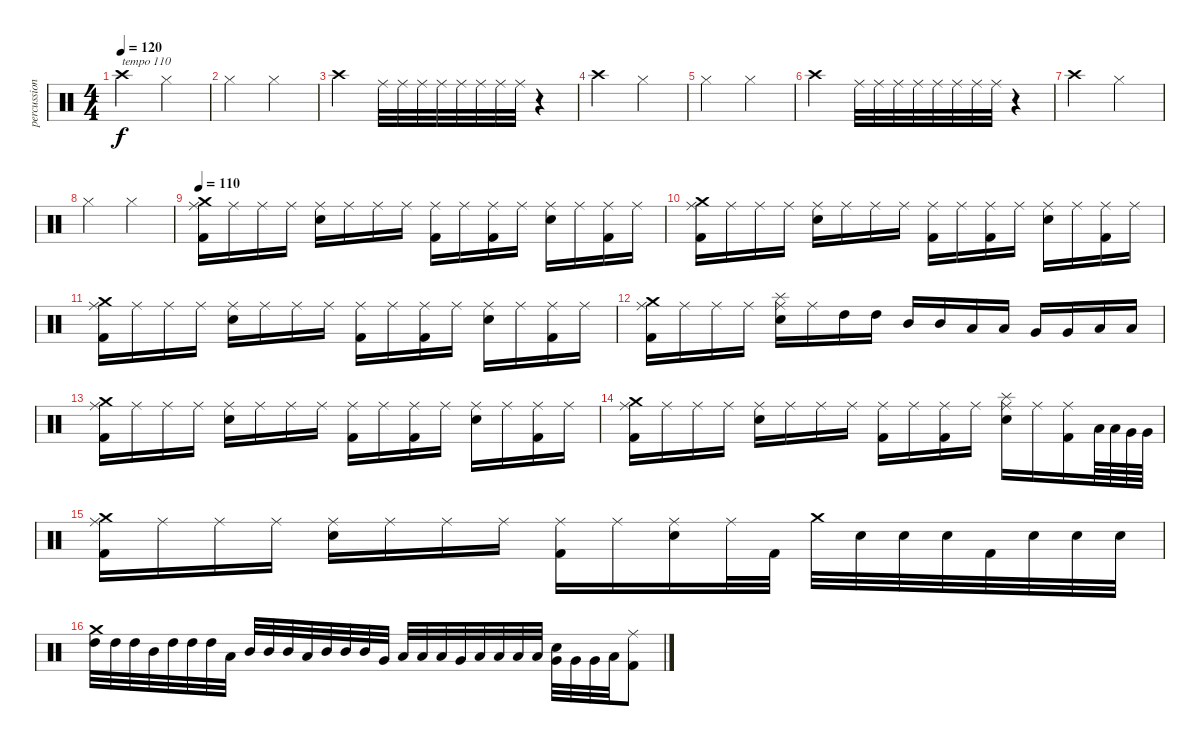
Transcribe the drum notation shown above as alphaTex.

\track ("percussion" "percussion") {instrument percussion}
\staff {score}
\articulation defaults
\ts (4 4)
\tempo 120
\tempo 110
\tempo 120
\clef neutral
\ks c "Crash high (hit)".2{txt "tempo 110" dy f} "Hi-Hat (closed)".2
|
"Hi-Hat (closed)".2 "Hi-Hat (closed)".2 |
"Crash high (hit)".2 "Ride (middle)".32 "Ride (middle)".32 "Ride (middle)".32 "Ride (middle)".32 "Ride (middle)".32 "Ride (middle)".32 "Ride (middle)".32 "Ride (middle)".32 r.4 |
"Crash high (hit)".2 "Hi-Hat (closed)".2 |
"Hi-Hat (closed)".2 "Hi-Hat (closed)".2 |
"Crash high (hit)".2 "Ride (middle)".32 "Ride (middle)".32 "Ride (middle)".32 "Ride (middle)".32 "Ride (middle)".32 "Ride (middle)".32 "Ride (middle)".32 "Ride (middle)".32 r.4 |
"Crash high (hit)".2 "Hi-Hat (closed)".2 |
"Hi-Hat (closed)".2 "Hi-Hat (closed)".2 |
\tempo 110
("Ride (middle)" "Kick (hit) 2" "Crash medium (hit)").16 "Ride (middle)".16 "Ride (middle)".16 "Ride (middle)".16 ("Ride (middle)" "Electric Snare (hit)").16 "Ride (middle)".16 "Ride (middle)".16 "Ride (middle)".16 ("Ride (middle)" "Kick (hit) 2").16 "Ride (middle)".16 ("Ride (middle)" "Kick (hit) 2").16 "Ride (middle)".16 ("Ride (middle)" "Electric Snare (hit)").16 "Ride (middle)".16 ("Ride (middle)" "Kick (hit) 2").16 "Ride (middle)".16 |
("Kick (hit) 2" "Ride (middle)" "Crash medium (hit)").16 "Ride (middle)".16 "Ride (middle)".16 "Ride (middle)".16 ("Ride (middle)" "Electric Snare (hit)").16 "Ride (middle)".16 "Ride (middle)".16 "Ride (middle)".16 ("Ride (middle)" "Kick (hit) 2").16 "Ride (middle)".16 ("Ride (middle)" "Kick (hit) 2").16 "Ride (middle)".16 ("Ride (middle)" "Electric Snare (hit)").16 "Ride (middle)".16 ("Ride (middle)" "Kick (hit) 2").16 "Ride (middle)".16 |
("Ride (middle)" "Kick (hit) 2" "Crash medium (hit)").16 "Ride (middle)".16 "Ride (middle)".16 "Ride (middle)".16 ("Ride (middle)" "Electric Snare (hit)").16 "Ride (middle)".16 "Ride (middle)".16 "Ride (middle)".16 ("Ride (middle)" "Kick (hit) 2").16 "Ride (middle)".16 ("Ride (middle)" "Kick (hit) 2").16 "Ride (middle)".16 ("Ride (middle)" "Electric Snare (hit)").16 "Ride (middle)".16 ("Ride (middle)" "Kick (hit) 2").16 "Ride (middle)".16 |
("Ride (middle)" "Kick (hit) 2" "Crash medium (hit)").16 "Ride (middle)".16 "Ride (middle)".16 "Ride (middle)".16 ("Splash (hit)" "Ride (middle)" "Electric Snare (hit)").16 "Ride (middle)".16 "High Tom (hit)".16 "High Tom (hit)".16 "Mid Tom (hit)".16 "Mid Tom (hit)".16 "Low Tom (hit)".16 "Low Tom (hit)".16 "Very Low Tom (hit)".16 "Very Low Tom (hit)".16 "Low Floor Tom (hit)".16 "Low Floor Tom (hit)".16 |
("Crash medium (hit)" "Kick (hit) 2" "Ride (middle)").16 "Ride (middle)".16 "Ride (middle)".16 "Ride (middle)".16 ("Ride (middle)" "Electric Snare (hit)").16 "Ride (middle)".16 "Ride (middle)".16 "Ride (middle)".16 ("Ride (middle)" "Kick (hit) 2").16 "Ride (middle)".16 ("Ride (middle)" "Kick (hit) 2").16 "Ride (middle)".16 ("Ride (middle)" "Electric Snare (hit)").16 "Ride (middle)".16 ("Ride (middle)" "Kick (hit) 2").16 "Ride (middle)".16 |
("Ride (middle)" "Kick (hit) 2" "Crash medium (hit)").16 "Ride (middle)".16 "Ride (middle)".16 "Ride (middle)".16 ("Ride (middle)" "Electric Snare (hit)").16 "Ride (middle)".16 "Ride (middle)".16 "Ride (middle)".16 ("Ride (middle)" "Kick (hit) 2").16 "Ride (middle)".16 ("Ride (middle)" "Kick (hit) 2").16 "Ride (middle)".16 ("Ride (middle)" "Electric Snare (hit)" "Splash (hit)").16 "Ride (middle)".16 ("Kick (hit) 2" "Ride (middle)").16 "Low Tom (hit)".64 "Low Tom (hit)".64 "Very Low Tom (hit)".64 "Very Low Tom (hit)".64 |
("Kick (hit) 2" "Ride (middle)" "Crash medium (hit)").16 "Ride (middle)".16 "Ride (middle)".16 "Ride (middle)".16 ("Ride (middle)" "Electric Snare (hit)").16 "Ride (middle)".16 "Ride (middle)".16 "Ride (middle)".16 ("Ride (middle)" "Kick (hit) 2").16 "Ride (middle)".16 ("Ride (middle)" "Electric Snare (hit)").16 "Ride (middle)".32 "Kick (hit) 2".32 "Crash medium (hit)".32 "Electric Snare (hit)".32 "Electric Snare (hit)".32 "Electric Snare (hit)".32 "Kick (hit) 2".32 "Electric Snare (hit)".32 "Electric Snare (hit)".32 "Electric Snare (hit)".32 |
("Crash medium (hit)" "High Tom (hit)").32 "High Tom (hit)".32 "High Tom (hit)".32 "Mid Tom (hit)".32 "High Tom (hit)".32 "High Tom (hit)".32 "High Tom (hit)".32 "Low Tom (hit)".32 "Mid Tom (hit)".32 "Mid Tom (hit)".32 "Mid Tom (hit)".32 "Low Tom (hit)".32 "Mid Tom (hit)".32 "Mid Tom (hit)".32 "Mid Tom (hit)".32 "Very Low Tom (hit)".32 "Low Tom (hit)".32 "Low Tom (hit)".32 "Low Tom (hit)".32 "Very Low Tom (hit)".32 "Low Tom (hit)".32 "Low Tom (hit)".32 "Low Tom (hit)".32 "Low Floor Tom (hit)".32 ("Electric Snare (hit)" "Very Low Tom (hit)").32 "Very Low Tom (hit)".32 "Very Low Tom (hit)".32 "Low Floor Tom (hit)".32 ("Ride (middle)" "Kick (hit) 2").8
